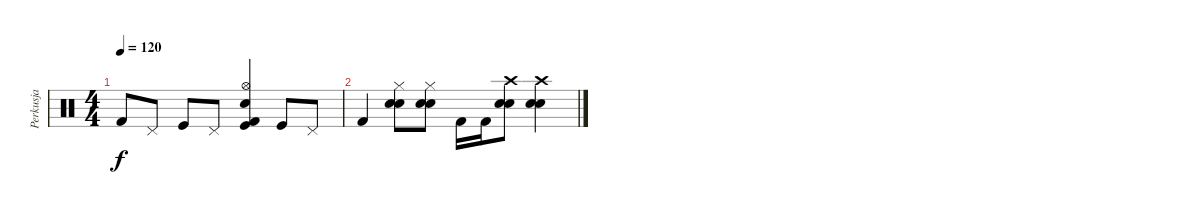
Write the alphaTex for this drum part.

\track ("Perkusja" "Perkusja") {instrument percussion}
\staff {score}
\articulation defaults
\ts (4 4)
\tempo 120
\clef neutral
\ks c "Kick (hit) 2".8{dy f} "Pedal Hi-Hat (hit)".8 "Kick (hit)".8 "Pedal Hi-Hat (hit)".8
("Hi-Hat (open)" "Snare (hit) 2" "Kick (hit)" "Kick (hit) 2").4 "Kick (hit)".8 "Pedal Hi-Hat (hit)".8 |
"Kick (hit) 2".4 ("Hi-Hat (closed)" "Snare (hit) 2" "Snare (hit) 2").8 ("Hi-Hat (closed)" "Snare (hit) 2" "Snare (hit) 2").8 "Kick (hit) 2".16 "Kick (hit) 2".16 ("Crash high (hit)" "Snare (hit) 2" "Snare (hit) 2").8 ("Crash high (hit)" "Snare (hit) 2" "Snare (hit) 2").4
